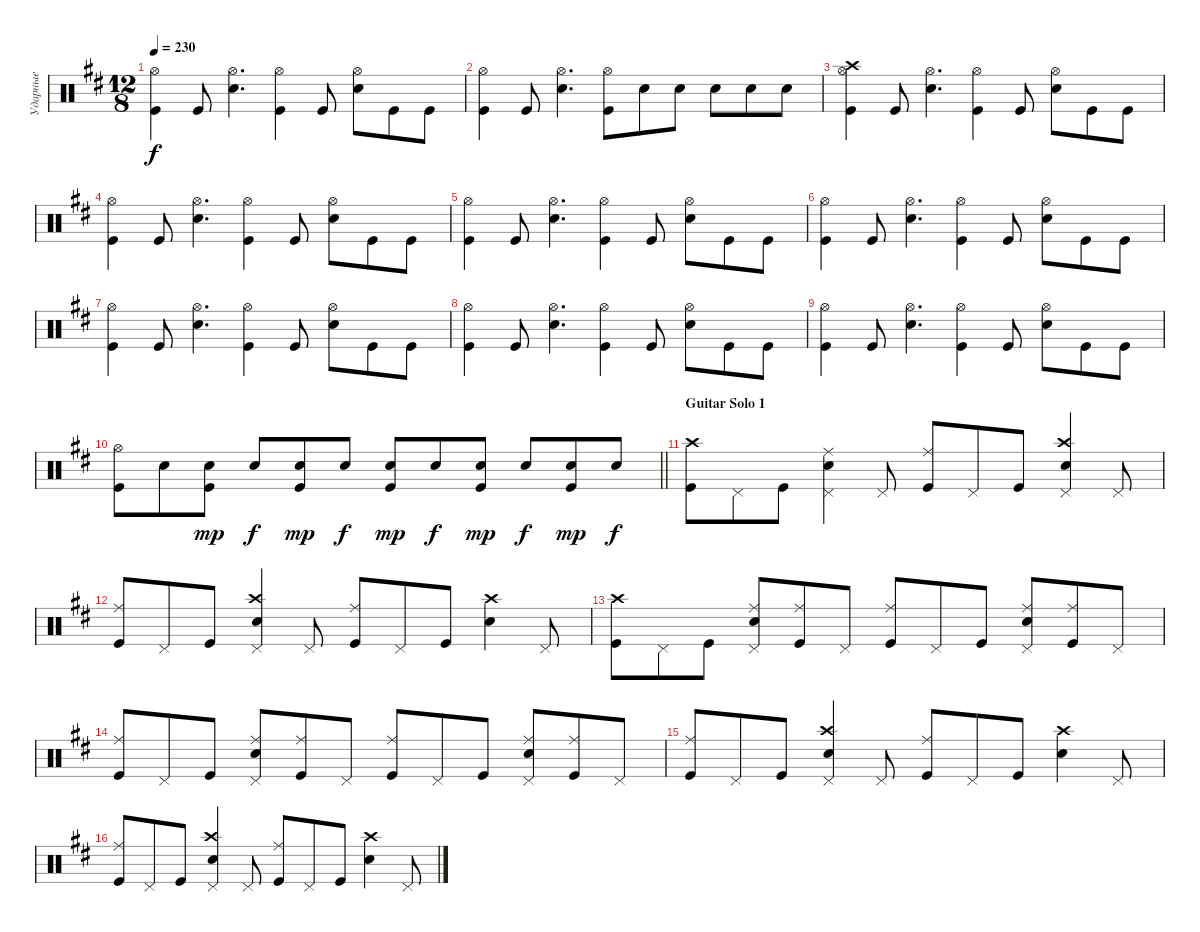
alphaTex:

\track ("Ударные" "Ударные") {instrument percussion}
\staff {score}
\articulation defaults
\ts (12 8)
\tempo 230
\clef neutral
\ks bminor
("Kick (hit)" "Hi-Hat (open)").4{dy f} "Kick (hit)".8 ("Snare (hit) 2" "Hi-Hat (open)").4{d} ("Kick (hit)" "Hi-Hat (open)").4 "Kick (hit)".8 ("Snare (hit) 2" "Hi-Hat (open)").8 "Kick (hit)".8 "Kick (hit)".8 |
("Kick (hit)" "Hi-Hat (open)").4 "Kick (hit)".8 ("Snare (hit) 2" "Hi-Hat (open)").4{d} ("Kick (hit)" "Hi-Hat (open)").8 "Snare (hit) 2".8 "Snare (hit) 2".8 "Snare (hit) 2".8 "Snare (hit) 2".8 "Snare (hit) 2".8 |
("Kick (hit)" "Hi-Hat (open)" "Crash high (hit)").4 "Kick (hit)".8 ("Snare (hit) 2" "Hi-Hat (open)").4{d} ("Kick (hit)" "Hi-Hat (open)").4 "Kick (hit)".8 ("Snare (hit) 2" "Hi-Hat (open)").8 "Kick (hit)".8 "Kick (hit)".8 |
("Kick (hit)" "Hi-Hat (open)").4 "Kick (hit)".8 ("Snare (hit) 2" "Hi-Hat (open)").4{d} ("Kick (hit)" "Hi-Hat (open)").4 "Kick (hit)".8 ("Snare (hit) 2" "Hi-Hat (open)").8 "Kick (hit)".8 "Kick (hit)".8 |
("Kick (hit)" "Hi-Hat (open)").4 "Kick (hit)".8 ("Snare (hit) 2" "Hi-Hat (open)").4{d} ("Kick (hit)" "Hi-Hat (open)").4 "Kick (hit)".8 ("Snare (hit) 2" "Hi-Hat (open)").8 "Kick (hit)".8 "Kick (hit)".8 |
("Kick (hit)" "Hi-Hat (open)").4 "Kick (hit)".8 ("Snare (hit) 2" "Hi-Hat (open)").4{d} ("Kick (hit)" "Hi-Hat (open)").4 "Kick (hit)".8 ("Snare (hit) 2" "Hi-Hat (open)").8 "Kick (hit)".8 "Kick (hit)".8 |
("Kick (hit)" "Hi-Hat (open)").4 "Kick (hit)".8 ("Snare (hit) 2" "Hi-Hat (open)").4{d} ("Kick (hit)" "Hi-Hat (open)").4 "Kick (hit)".8 ("Snare (hit) 2" "Hi-Hat (open)").8 "Kick (hit)".8 "Kick (hit)".8 |
("Kick (hit)" "Hi-Hat (open)").4 "Kick (hit)".8 ("Snare (hit) 2" "Hi-Hat (open)").4{d} ("Kick (hit)" "Hi-Hat (open)").4 "Kick (hit)".8 ("Snare (hit) 2" "Hi-Hat (open)").8 "Kick (hit)".8 "Kick (hit)".8 |
("Kick (hit)" "Hi-Hat (open)").4 "Kick (hit)".8 ("Snare (hit) 2" "Hi-Hat (open)").4{d} ("Kick (hit)" "Hi-Hat (open)").4 "Kick (hit)".8 ("Snare (hit) 2" "Hi-Hat (open)").8 "Kick (hit)".8 "Kick (hit)".8 |
\barLineRight lightlight
("Kick (hit)" "Hi-Hat (open)").8 "Snare (hit) 2".8 ("Snare (hit) 2" "Kick (hit)").8{dy mp} "Snare (hit) 2".8{dy f} ("Snare (hit) 2" "Kick (hit)").8{dy mp} "Snare (hit) 2".8{dy f} ("Snare (hit) 2" "Kick (hit)").8{dy mp} "Snare (hit) 2".8{dy f} ("Snare (hit) 2" "Kick (hit)").8{dy mp} "Snare (hit) 2".8{dy f} ("Snare (hit) 2" "Kick (hit)").8{dy mp} "Snare (hit) 2".8{dy f} |
\section ("" "Guitar Solo 1")
("Kick (hit)" "Crash high (hit)").8 "Pedal Hi-Hat (hit)".8 "Kick (hit)".8 ("Snare (hit) 2" "Ride (middle)" "Pedal Hi-Hat (hit)").4 "Pedal Hi-Hat (hit)".8 ("Kick (hit)" "Ride (middle)").8 "Pedal Hi-Hat (hit)".8 "Kick (hit)".8 ("Snare (hit) 2" "Crash high (hit)" "Pedal Hi-Hat (hit)").4 "Pedal Hi-Hat (hit)".8 |
("Kick (hit)" "Ride (middle)").8 "Pedal Hi-Hat (hit)".8 "Kick (hit)".8 ("Snare (hit) 2" "Crash high (hit)" "Pedal Hi-Hat (hit)").4 "Pedal Hi-Hat (hit)".8 ("Kick (hit)" "Ride (middle)").8 "Pedal Hi-Hat (hit)".8 "Kick (hit)".8 ("Snare (hit) 2" "Crash high (hit)").4 "Pedal Hi-Hat (hit)".8 |
("Kick (hit)" "Crash high (hit)").8 "Pedal Hi-Hat (hit)".8 "Kick (hit)".8 ("Snare (hit) 2" "Ride (middle)" "Pedal Hi-Hat (hit)").8 ("Ride (middle)" "Kick (hit)").8 "Pedal Hi-Hat (hit)".8 ("Kick (hit)" "Ride (middle)").8 "Pedal Hi-Hat (hit)".8 "Kick (hit)".8 ("Snare (hit) 2" "Ride (middle)" "Pedal Hi-Hat (hit)").8 ("Ride (middle)" "Kick (hit)").8 "Pedal Hi-Hat (hit)".8 |
("Kick (hit)" "Ride (middle)").8 "Pedal Hi-Hat (hit)".8 "Kick (hit)".8 ("Snare (hit) 2" "Ride (middle)" "Pedal Hi-Hat (hit)").8 ("Ride (middle)" "Kick (hit)").8 "Pedal Hi-Hat (hit)".8 ("Kick (hit)" "Ride (middle)").8 "Pedal Hi-Hat (hit)".8 "Kick (hit)".8 ("Snare (hit) 2" "Ride (middle)" "Pedal Hi-Hat (hit)").8 ("Ride (middle)" "Kick (hit)").8 "Pedal Hi-Hat (hit)".8 |
("Kick (hit)" "Ride (middle)").8 "Pedal Hi-Hat (hit)".8 "Kick (hit)".8 ("Snare (hit) 2" "Crash high (hit)" "Pedal Hi-Hat (hit)").4 "Pedal Hi-Hat (hit)".8 ("Kick (hit)" "Ride (middle)").8 "Pedal Hi-Hat (hit)".8 "Kick (hit)".8 ("Snare (hit) 2" "Crash high (hit)").4 "Pedal Hi-Hat (hit)".8 |
("Kick (hit)" "Ride (middle)").8 "Pedal Hi-Hat (hit)".8 "Kick (hit)".8 ("Snare (hit) 2" "Crash high (hit)" "Pedal Hi-Hat (hit)").4 "Pedal Hi-Hat (hit)".8 ("Kick (hit)" "Ride (middle)").8 "Pedal Hi-Hat (hit)".8 "Kick (hit)".8 ("Snare (hit) 2" "Crash high (hit)").4 "Pedal Hi-Hat (hit)".8
